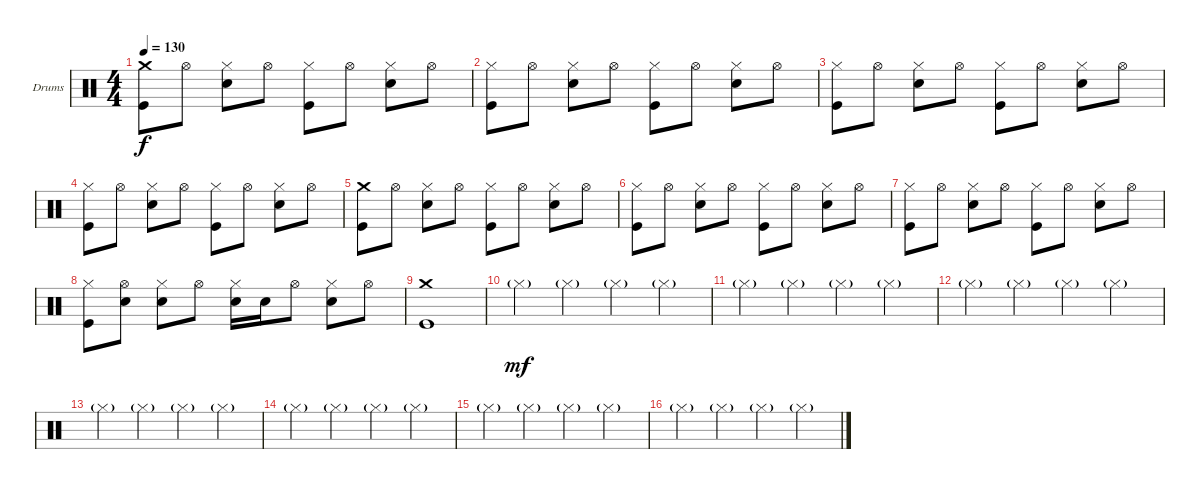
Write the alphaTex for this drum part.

\bracketExtendMode groupsimilarinstruments
\firstSystemTrackNameOrientation horizontal
\otherSystemsTrackNameOrientation horizontal
\track ("Drumkit" "Drums") {instrument percussion}
\staff {score}
\articulation defaults
\ts (4 4)
\tempo 130
\clef neutral
\ks c
("Crash medium (hit)" "Kick (hit)").8{dy f} "Hi-Hat (open)".8 ("Hi-Hat (closed)" "Snare (hit) 2").8 "Hi-Hat (open)".8 ("Hi-Hat (closed)" "Kick (hit)").8 "Hi-Hat (open)".8 ("Hi-Hat (closed)" "Snare (hit) 2").8 "Hi-Hat (open)".8 |
("Hi-Hat (closed)" "Kick (hit)").8 "Hi-Hat (open)".8 ("Hi-Hat (closed)" "Snare (hit) 2").8 "Hi-Hat (open)".8 ("Hi-Hat (closed)" "Kick (hit)").8 "Hi-Hat (open)".8 ("Hi-Hat (closed)" "Snare (hit) 2").8 "Hi-Hat (open)".8 |
("Hi-Hat (closed)" "Kick (hit)").8 "Hi-Hat (open)".8 ("Hi-Hat (closed)" "Snare (hit) 2").8 "Hi-Hat (open)".8 ("Hi-Hat (closed)" "Kick (hit)").8 "Hi-Hat (open)".8 ("Hi-Hat (closed)" "Snare (hit) 2").8 "Hi-Hat (open)".8 |
("Hi-Hat (closed)" "Kick (hit)").8 "Hi-Hat (open)".8 ("Hi-Hat (closed)" "Snare (hit) 2").8 "Hi-Hat (open)".8 ("Hi-Hat (closed)" "Kick (hit)").8 "Hi-Hat (open)".8 ("Hi-Hat (closed)" "Snare (hit) 2").8 "Hi-Hat (open)".8 |
("Crash medium (hit)" "Kick (hit)").8 "Hi-Hat (open)".8 ("Hi-Hat (closed)" "Snare (hit) 2").8 "Hi-Hat (open)".8 ("Hi-Hat (closed)" "Kick (hit)").8 "Hi-Hat (open)".8 ("Hi-Hat (closed)" "Snare (hit) 2").8 "Hi-Hat (open)".8 |
("Hi-Hat (closed)" "Kick (hit)").8 "Hi-Hat (open)".8 ("Hi-Hat (closed)" "Snare (hit) 2").8 "Hi-Hat (open)".8 ("Hi-Hat (closed)" "Kick (hit)").8 "Hi-Hat (open)".8 ("Hi-Hat (closed)" "Snare (hit) 2").8 "Hi-Hat (open)".8 |
("Hi-Hat (closed)" "Kick (hit)").8 "Hi-Hat (open)".8 ("Hi-Hat (closed)" "Snare (hit) 2").8 "Hi-Hat (open)".8 ("Hi-Hat (closed)" "Kick (hit)").8 "Hi-Hat (open)".8 ("Hi-Hat (closed)" "Snare (hit) 2").8 "Hi-Hat (open)".8 |
("Hi-Hat (closed)" "Kick (hit)").8 ("Hi-Hat (open)" "Snare (hit) 2").8 ("Hi-Hat (closed)" "Snare (hit) 2").8 "Hi-Hat (open)".8 ("Hi-Hat (closed)" "Snare (hit) 2").16 "Snare (hit) 2".16 "Hi-Hat (open)".8 ("Hi-Hat (closed)" "Snare (hit) 2").8 "Hi-Hat (open)".8 |
("Crash medium (hit)" "Kick (hit)").1 |
"Hi-Hat (closed)"{g}.4{dy mf} "Hi-Hat (closed)"{g}.4 "Hi-Hat (closed)"{g}.4 "Hi-Hat (closed)"{g}.4 |
"Hi-Hat (closed)"{g}.4 "Hi-Hat (closed)"{g}.4 "Hi-Hat (closed)"{g}.4 "Hi-Hat (closed)"{g}.4 |
"Hi-Hat (closed)"{g}.4 "Hi-Hat (closed)"{g}.4 "Hi-Hat (closed)"{g}.4 "Hi-Hat (closed)"{g}.4 |
"Hi-Hat (closed)"{g}.4 "Hi-Hat (closed)"{g}.4 "Hi-Hat (closed)"{g}.4 "Hi-Hat (closed)"{g}.4 |
"Hi-Hat (closed)"{g}.4 "Hi-Hat (closed)"{g}.4 "Hi-Hat (closed)"{g}.4 "Hi-Hat (closed)"{g}.4 |
"Hi-Hat (closed)"{g}.4 "Hi-Hat (closed)"{g}.4 "Hi-Hat (closed)"{g}.4 "Hi-Hat (closed)"{g}.4 |
"Hi-Hat (closed)"{g}.4 "Hi-Hat (closed)"{g}.4 "Hi-Hat (closed)"{g}.4 "Hi-Hat (closed)"{g}.4
